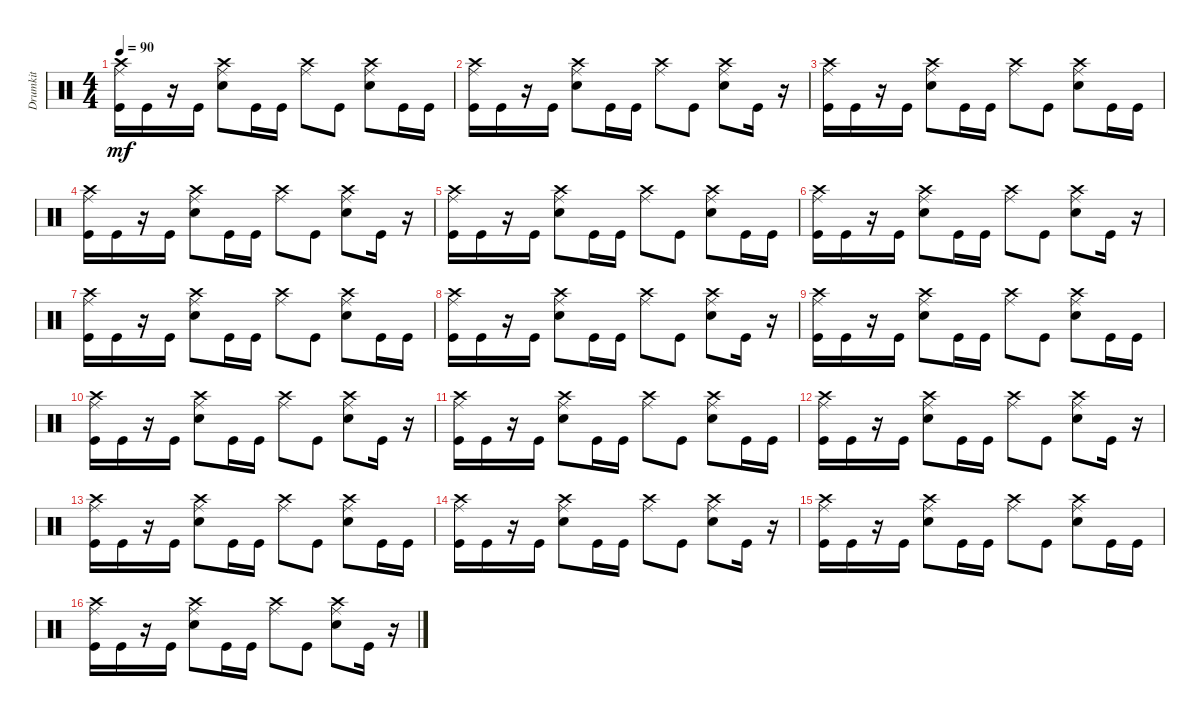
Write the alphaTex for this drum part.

\track ("Drumkit" "Drumkit") {instrument percussion}
\staff {score}
\articulation defaults
\ts (4 4)
\tempo 90
\clef neutral
\ks c
("Kick (hit)" "Crash high (hit)" "Ride (middle)").16{dy mf} "Kick (hit)".16 r.16 "Kick (hit)".16 ("Snare (hit) 2" "Crash high (hit)" "Ride (middle)").8 "Kick (hit)".16 "Kick (hit)".16 ("Crash high (hit)" "Ride (middle)").8 "Kick (hit)".8 ("Snare (hit) 2" "Crash high (hit)" "Ride (middle)").8 "Kick (hit)".16 "Kick (hit)".16 |
("Kick (hit)" "Crash high (hit)" "Ride (middle)").16 "Kick (hit)".16 r.16 "Kick (hit)".16 ("Snare (hit) 2" "Crash high (hit)" "Ride (middle)").8 "Kick (hit)".16 "Kick (hit)".16 ("Crash high (hit)" "Ride (middle)").8 "Kick (hit)".8 ("Snare (hit) 2" "Crash high (hit)" "Ride (middle)").8 "Kick (hit)".16 r.16 |
("Kick (hit)" "Crash high (hit)" "Ride (middle)").16 "Kick (hit)".16 r.16 "Kick (hit)".16 ("Snare (hit) 2" "Crash high (hit)" "Ride (middle)").8 "Kick (hit)".16 "Kick (hit)".16 ("Crash high (hit)" "Ride (middle)").8 "Kick (hit)".8 ("Snare (hit) 2" "Crash high (hit)" "Ride (middle)").8 "Kick (hit)".16 "Kick (hit)".16 |
("Kick (hit)" "Crash high (hit)" "Ride (middle)").16 "Kick (hit)".16 r.16 "Kick (hit)".16 ("Snare (hit) 2" "Crash high (hit)" "Ride (middle)").8 "Kick (hit)".16 "Kick (hit)".16 ("Crash high (hit)" "Ride (middle)").8 "Kick (hit)".8 ("Snare (hit) 2" "Crash high (hit)" "Ride (middle)").8 "Kick (hit)".16 r.16 |
("Kick (hit)" "Crash high (hit)" "Ride (middle)").16 "Kick (hit)".16 r.16 "Kick (hit)".16 ("Snare (hit) 2" "Crash high (hit)" "Ride (middle)").8 "Kick (hit)".16 "Kick (hit)".16 ("Crash high (hit)" "Ride (middle)").8 "Kick (hit)".8 ("Snare (hit) 2" "Crash high (hit)" "Ride (middle)").8 "Kick (hit)".16 "Kick (hit)".16 |
("Kick (hit)" "Crash high (hit)" "Ride (middle)").16 "Kick (hit)".16 r.16 "Kick (hit)".16 ("Snare (hit) 2" "Crash high (hit)" "Ride (middle)").8 "Kick (hit)".16 "Kick (hit)".16 ("Crash high (hit)" "Ride (middle)").8 "Kick (hit)".8 ("Snare (hit) 2" "Crash high (hit)" "Ride (middle)").8 "Kick (hit)".16 r.16 |
("Kick (hit)" "Crash high (hit)" "Ride (middle)").16 "Kick (hit)".16 r.16 "Kick (hit)".16 ("Snare (hit) 2" "Crash high (hit)" "Ride (middle)").8 "Kick (hit)".16 "Kick (hit)".16 ("Crash high (hit)" "Ride (middle)").8 "Kick (hit)".8 ("Snare (hit) 2" "Crash high (hit)" "Ride (middle)").8 "Kick (hit)".16 "Kick (hit)".16 |
("Kick (hit)" "Crash high (hit)" "Ride (middle)").16 "Kick (hit)".16 r.16 "Kick (hit)".16 ("Snare (hit) 2" "Crash high (hit)" "Ride (middle)").8 "Kick (hit)".16 "Kick (hit)".16 ("Crash high (hit)" "Ride (middle)").8 "Kick (hit)".8 ("Snare (hit) 2" "Crash high (hit)" "Ride (middle)").8 "Kick (hit)".16 r.16 |
("Kick (hit)" "Crash high (hit)" "Ride (middle)").16 "Kick (hit)".16 r.16 "Kick (hit)".16 ("Snare (hit) 2" "Crash high (hit)" "Ride (middle)").8 "Kick (hit)".16 "Kick (hit)".16 ("Crash high (hit)" "Ride (middle)").8 "Kick (hit)".8 ("Snare (hit) 2" "Crash high (hit)" "Ride (middle)").8 "Kick (hit)".16 "Kick (hit)".16 |
("Kick (hit)" "Crash high (hit)" "Ride (middle)").16 "Kick (hit)".16 r.16 "Kick (hit)".16 ("Snare (hit) 2" "Crash high (hit)" "Ride (middle)").8 "Kick (hit)".16 "Kick (hit)".16 ("Crash high (hit)" "Ride (middle)").8 "Kick (hit)".8 ("Snare (hit) 2" "Crash high (hit)" "Ride (middle)").8 "Kick (hit)".16 r.16 |
("Kick (hit)" "Crash high (hit)" "Ride (middle)").16 "Kick (hit)".16 r.16 "Kick (hit)".16 ("Snare (hit) 2" "Crash high (hit)" "Ride (middle)").8 "Kick (hit)".16 "Kick (hit)".16 ("Crash high (hit)" "Ride (middle)").8 "Kick (hit)".8 ("Snare (hit) 2" "Crash high (hit)" "Ride (middle)").8 "Kick (hit)".16 "Kick (hit)".16 |
("Kick (hit)" "Crash high (hit)" "Ride (middle)").16 "Kick (hit)".16 r.16 "Kick (hit)".16 ("Snare (hit) 2" "Crash high (hit)" "Ride (middle)").8 "Kick (hit)".16 "Kick (hit)".16 ("Crash high (hit)" "Ride (middle)").8 "Kick (hit)".8 ("Snare (hit) 2" "Crash high (hit)" "Ride (middle)").8 "Kick (hit)".16 r.16 |
("Kick (hit)" "Crash high (hit)" "Ride (middle)").16 "Kick (hit)".16 r.16 "Kick (hit)".16 ("Snare (hit) 2" "Crash high (hit)" "Ride (middle)").8 "Kick (hit)".16 "Kick (hit)".16 ("Crash high (hit)" "Ride (middle)").8 "Kick (hit)".8 ("Snare (hit) 2" "Crash high (hit)" "Ride (middle)").8 "Kick (hit)".16 "Kick (hit)".16 |
("Kick (hit)" "Crash high (hit)" "Ride (middle)").16 "Kick (hit)".16 r.16 "Kick (hit)".16 ("Snare (hit) 2" "Crash high (hit)" "Ride (middle)").8 "Kick (hit)".16 "Kick (hit)".16 ("Crash high (hit)" "Ride (middle)").8 "Kick (hit)".8 ("Snare (hit) 2" "Crash high (hit)" "Ride (middle)").8 "Kick (hit)".16 r.16 |
("Kick (hit)" "Crash high (hit)" "Ride (middle)").16 "Kick (hit)".16 r.16 "Kick (hit)".16 ("Snare (hit) 2" "Crash high (hit)" "Ride (middle)").8 "Kick (hit)".16 "Kick (hit)".16 ("Crash high (hit)" "Ride (middle)").8 "Kick (hit)".8 ("Snare (hit) 2" "Crash high (hit)" "Ride (middle)").8 "Kick (hit)".16 "Kick (hit)".16 |
("Kick (hit)" "Crash high (hit)" "Ride (middle)").16 "Kick (hit)".16 r.16 "Kick (hit)".16 ("Snare (hit) 2" "Crash high (hit)" "Ride (middle)").8 "Kick (hit)".16 "Kick (hit)".16 ("Crash high (hit)" "Ride (middle)").8 "Kick (hit)".8 ("Snare (hit) 2" "Crash high (hit)" "Ride (middle)").8 "Kick (hit)".16 r.16
